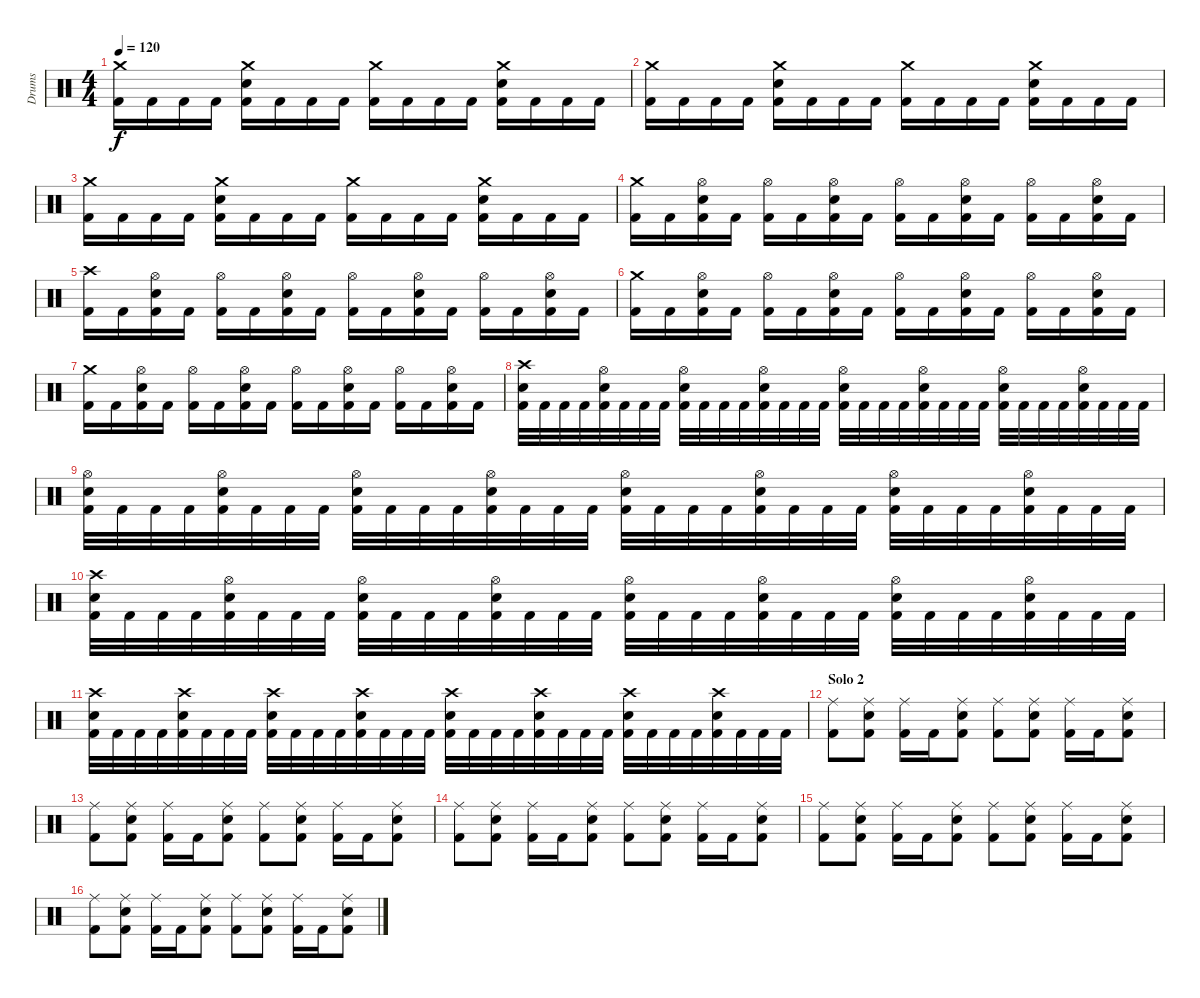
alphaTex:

\track ("Drums" "Drums") {instrument percussion}
\staff {score}
\articulation defaults
\ts (4 4)
\tempo 120
\clef neutral
\ks c
("Crash medium (hit)" "Kick (hit) 2").16{dy f} "Kick (hit) 2".16 "Kick (hit) 2".16 "Kick (hit) 2".16 ("Crash medium (hit)" "Electric Snare (hit)" "Kick (hit) 2").16 "Kick (hit) 2".16 "Kick (hit) 2".16 "Kick (hit) 2".16 ("Crash medium (hit)" "Kick (hit) 2").16 "Kick (hit) 2".16 "Kick (hit) 2".16 "Kick (hit) 2".16 ("Crash medium (hit)" "Electric Snare (hit)" "Kick (hit) 2").16 "Kick (hit) 2".16 "Kick (hit) 2".16 "Kick (hit) 2".16 |
("Crash medium (hit)" "Kick (hit) 2").16 "Kick (hit) 2".16 "Kick (hit) 2".16 "Kick (hit) 2".16 ("Crash medium (hit)" "Electric Snare (hit)" "Kick (hit) 2").16 "Kick (hit) 2".16 "Kick (hit) 2".16 "Kick (hit) 2".16 ("Crash medium (hit)" "Kick (hit) 2").16 "Kick (hit) 2".16 "Kick (hit) 2".16 "Kick (hit) 2".16 ("Crash medium (hit)" "Electric Snare (hit)" "Kick (hit) 2").16 "Kick (hit) 2".16 "Kick (hit) 2".16 "Kick (hit) 2".16 |
("Crash medium (hit)" "Kick (hit) 2").16 "Kick (hit) 2".16 "Kick (hit) 2".16 "Kick (hit) 2".16 ("Crash medium (hit)" "Electric Snare (hit)" "Kick (hit) 2").16 "Kick (hit) 2".16 "Kick (hit) 2".16 "Kick (hit) 2".16 ("Crash medium (hit)" "Kick (hit) 2").16 "Kick (hit) 2".16 "Kick (hit) 2".16 "Kick (hit) 2".16 ("Crash medium (hit)" "Electric Snare (hit)" "Kick (hit) 2").16 "Kick (hit) 2".16 "Kick (hit) 2".16 "Kick (hit) 2".16 |
("Crash medium (hit)" "Kick (hit) 2").16 "Kick (hit) 2".16 ("Hi-Hat (open)" "Electric Snare (hit)" "Kick (hit) 2").16 "Kick (hit) 2".16 ("Hi-Hat (open)" "Kick (hit) 2").16 "Kick (hit) 2".16 ("Hi-Hat (open)" "Electric Snare (hit)" "Kick (hit) 2").16 "Kick (hit) 2".16 ("Hi-Hat (open)" "Kick (hit) 2").16 "Kick (hit) 2".16 ("Hi-Hat (open)" "Electric Snare (hit)" "Kick (hit) 2").16 "Kick (hit) 2".16 ("Hi-Hat (open)" "Kick (hit) 2").16 "Kick (hit) 2".16 ("Hi-Hat (open)" "Electric Snare (hit)" "Kick (hit) 2").16 "Kick (hit) 2".16 |
("Crash high (hit)" "Kick (hit) 2").16 "Kick (hit) 2".16 ("Hi-Hat (open)" "Electric Snare (hit)" "Kick (hit) 2").16 "Kick (hit) 2".16 ("Hi-Hat (open)" "Kick (hit) 2").16 "Kick (hit) 2".16 ("Hi-Hat (open)" "Electric Snare (hit)" "Kick (hit) 2").16 "Kick (hit) 2".16 ("Hi-Hat (open)" "Kick (hit) 2").16 "Kick (hit) 2".16 ("Hi-Hat (open)" "Electric Snare (hit)" "Kick (hit) 2").16 "Kick (hit) 2".16 ("Hi-Hat (open)" "Kick (hit) 2").16 "Kick (hit) 2".16 ("Hi-Hat (open)" "Electric Snare (hit)" "Kick (hit) 2").16 "Kick (hit) 2".16 |
("Crash medium (hit)" "Kick (hit) 2").16 "Kick (hit) 2".16 ("Hi-Hat (open)" "Electric Snare (hit)" "Kick (hit) 2").16 "Kick (hit) 2".16 ("Hi-Hat (open)" "Kick (hit) 2").16 "Kick (hit) 2".16 ("Hi-Hat (open)" "Electric Snare (hit)" "Kick (hit) 2").16 "Kick (hit) 2".16 ("Hi-Hat (open)" "Kick (hit) 2").16 "Kick (hit) 2".16 ("Hi-Hat (open)" "Electric Snare (hit)" "Kick (hit) 2").16 "Kick (hit) 2".16 ("Hi-Hat (open)" "Kick (hit) 2").16 "Kick (hit) 2".16 ("Hi-Hat (open)" "Electric Snare (hit)" "Kick (hit) 2").16 "Kick (hit) 2".16 |
("Crash medium (hit)" "Kick (hit) 2").16 "Kick (hit) 2".16 ("Hi-Hat (open)" "Electric Snare (hit)" "Kick (hit) 2").16 "Kick (hit) 2".16 ("Hi-Hat (open)" "Kick (hit) 2").16 "Kick (hit) 2".16 ("Hi-Hat (open)" "Electric Snare (hit)" "Kick (hit) 2").16 "Kick (hit) 2".16 ("Hi-Hat (open)" "Kick (hit) 2").16 "Kick (hit) 2".16 ("Hi-Hat (open)" "Electric Snare (hit)" "Kick (hit) 2").16 "Kick (hit) 2".16 ("Hi-Hat (open)" "Kick (hit) 2").16 "Kick (hit) 2".16 ("Hi-Hat (open)" "Electric Snare (hit)" "Kick (hit) 2").16 "Kick (hit) 2".16 |
("Crash high (hit)" "Electric Snare (hit)" "Kick (hit) 2").32 "Kick (hit) 2".32 "Kick (hit) 2".32 "Kick (hit) 2".32 ("Hi-Hat (open)" "Electric Snare (hit)" "Kick (hit) 2").32 "Kick (hit) 2".32 "Kick (hit) 2".32 "Kick (hit) 2".32 ("Hi-Hat (open)" "Electric Snare (hit)" "Kick (hit) 2").32 "Kick (hit) 2".32 "Kick (hit) 2".32 "Kick (hit) 2".32 ("Hi-Hat (open)" "Electric Snare (hit)" "Kick (hit) 2").32 "Kick (hit) 2".32 "Kick (hit) 2".32 "Kick (hit) 2".32 ("Hi-Hat (open)" "Electric Snare (hit)" "Kick (hit) 2").32 "Kick (hit) 2".32 "Kick (hit) 2".32 "Kick (hit) 2".32 ("Hi-Hat (open)" "Electric Snare (hit)" "Kick (hit) 2").32 "Kick (hit) 2".32 "Kick (hit) 2".32 "Kick (hit) 2".32 ("Hi-Hat (open)" "Electric Snare (hit)" "Kick (hit) 2").32 "Kick (hit) 2".32 "Kick (hit) 2".32 "Kick (hit) 2".32 ("Hi-Hat (open)" "Electric Snare (hit)" "Kick (hit) 2").32 "Kick (hit) 2".32 "Kick (hit) 2".32 "Kick (hit) 2".32 |
("Hi-Hat (open)" "Electric Snare (hit)" "Kick (hit) 2").32 "Kick (hit) 2".32 "Kick (hit) 2".32 "Kick (hit) 2".32 ("Hi-Hat (open)" "Electric Snare (hit)" "Kick (hit) 2").32 "Kick (hit) 2".32 "Kick (hit) 2".32 "Kick (hit) 2".32 ("Hi-Hat (open)" "Electric Snare (hit)" "Kick (hit) 2").32 "Kick (hit) 2".32 "Kick (hit) 2".32 "Kick (hit) 2".32 ("Hi-Hat (open)" "Electric Snare (hit)" "Kick (hit) 2").32 "Kick (hit) 2".32 "Kick (hit) 2".32 "Kick (hit) 2".32 ("Hi-Hat (open)" "Electric Snare (hit)" "Kick (hit) 2").32 "Kick (hit) 2".32 "Kick (hit) 2".32 "Kick (hit) 2".32 ("Hi-Hat (open)" "Electric Snare (hit)" "Kick (hit) 2").32 "Kick (hit) 2".32 "Kick (hit) 2".32 "Kick (hit) 2".32 ("Hi-Hat (open)" "Electric Snare (hit)" "Kick (hit) 2").32 "Kick (hit) 2".32 "Kick (hit) 2".32 "Kick (hit) 2".32 ("Hi-Hat (open)" "Electric Snare (hit)" "Kick (hit) 2").32 "Kick (hit) 2".32 "Kick (hit) 2".32 "Kick (hit) 2".32 |
("Crash high (hit)" "Electric Snare (hit)" "Kick (hit) 2").32 "Kick (hit) 2".32 "Kick (hit) 2".32 "Kick (hit) 2".32 ("Hi-Hat (open)" "Electric Snare (hit)" "Kick (hit) 2").32 "Kick (hit) 2".32 "Kick (hit) 2".32 "Kick (hit) 2".32 ("Hi-Hat (open)" "Electric Snare (hit)" "Kick (hit) 2").32 "Kick (hit) 2".32 "Kick (hit) 2".32 "Kick (hit) 2".32 ("Hi-Hat (open)" "Electric Snare (hit)" "Kick (hit) 2").32 "Kick (hit) 2".32 "Kick (hit) 2".32 "Kick (hit) 2".32 ("Hi-Hat (open)" "Electric Snare (hit)" "Kick (hit) 2").32 "Kick (hit) 2".32 "Kick (hit) 2".32 "Kick (hit) 2".32 ("Hi-Hat (open)" "Electric Snare (hit)" "Kick (hit) 2").32 "Kick (hit) 2".32 "Kick (hit) 2".32 "Kick (hit) 2".32 ("Hi-Hat (open)" "Electric Snare (hit)" "Kick (hit) 2").32 "Kick (hit) 2".32 "Kick (hit) 2".32 "Kick (hit) 2".32 ("Hi-Hat (open)" "Electric Snare (hit)" "Kick (hit) 2").32 "Kick (hit) 2".32 "Kick (hit) 2".32 "Kick (hit) 2".32 |
("Crash high (hit)" "Electric Snare (hit)" "Kick (hit) 2").32 "Kick (hit) 2".32 "Kick (hit) 2".32 "Kick (hit) 2".32 ("Crash high (hit)" "Electric Snare (hit)" "Kick (hit) 2").32 "Kick (hit) 2".32 "Kick (hit) 2".32 "Kick (hit) 2".32 ("Crash high (hit)" "Electric Snare (hit)" "Kick (hit) 2").32 "Kick (hit) 2".32 "Kick (hit) 2".32 "Kick (hit) 2".32 ("Crash high (hit)" "Electric Snare (hit)" "Kick (hit) 2").32 "Kick (hit) 2".32 "Kick (hit) 2".32 "Kick (hit) 2".32 ("Crash high (hit)" "Electric Snare (hit)" "Kick (hit) 2").32 "Kick (hit) 2".32 "Kick (hit) 2".32 "Kick (hit) 2".32 ("Crash high (hit)" "Electric Snare (hit)" "Kick (hit) 2").32 "Kick (hit) 2".32 "Kick (hit) 2".32 "Kick (hit) 2".32 ("Crash high (hit)" "Electric Snare (hit)" "Kick (hit) 2").32 "Kick (hit) 2".32 "Kick (hit) 2".32 "Kick (hit) 2".32 ("Crash high (hit)" "Electric Snare (hit)" "Kick (hit) 2").32 "Kick (hit) 2".32 "Kick (hit) 2".32 "Kick (hit) 2".32 |
\section ("" "Solo 2")
("Ride (middle)" "Kick (hit) 2").8 ("Ride (middle)" "Electric Snare (hit)" "Kick (hit) 2").8 ("Ride (middle)" "Kick (hit) 2").16 "Kick (hit) 2".16 ("Ride (middle)" "Electric Snare (hit)" "Kick (hit) 2").8 ("Ride (middle)" "Kick (hit) 2").8 ("Ride (middle)" "Electric Snare (hit)" "Kick (hit) 2").8 ("Ride (middle)" "Kick (hit) 2").16 "Kick (hit) 2".16 ("Ride (middle)" "Electric Snare (hit)" "Kick (hit) 2").8 |
("Ride (middle)" "Kick (hit) 2").8 ("Ride (middle)" "Electric Snare (hit)" "Kick (hit) 2").8 ("Ride (middle)" "Kick (hit) 2").16 "Kick (hit) 2".16 ("Ride (middle)" "Electric Snare (hit)" "Kick (hit) 2").8 ("Ride (middle)" "Kick (hit) 2").8 ("Ride (middle)" "Electric Snare (hit)" "Kick (hit) 2").8 ("Ride (middle)" "Kick (hit) 2").16 "Kick (hit) 2".16 ("Ride (middle)" "Electric Snare (hit)" "Kick (hit) 2").8 |
("Ride (middle)" "Kick (hit) 2").8 ("Ride (middle)" "Electric Snare (hit)" "Kick (hit) 2").8 ("Ride (middle)" "Kick (hit) 2").16 "Kick (hit) 2".16 ("Ride (middle)" "Electric Snare (hit)" "Kick (hit) 2").8 ("Ride (middle)" "Kick (hit) 2").8 ("Ride (middle)" "Electric Snare (hit)" "Kick (hit) 2").8 ("Ride (middle)" "Kick (hit) 2").16 "Kick (hit) 2".16 ("Ride (middle)" "Electric Snare (hit)" "Kick (hit) 2").8 |
("Ride (middle)" "Kick (hit) 2").8 ("Ride (middle)" "Electric Snare (hit)" "Kick (hit) 2").8 ("Ride (middle)" "Kick (hit) 2").16 "Kick (hit) 2".16 ("Ride (middle)" "Electric Snare (hit)" "Kick (hit) 2").8 ("Ride (middle)" "Kick (hit) 2").8 ("Ride (middle)" "Electric Snare (hit)" "Kick (hit) 2").8 ("Ride (middle)" "Kick (hit) 2").16 "Kick (hit) 2".16 ("Ride (middle)" "Electric Snare (hit)" "Kick (hit) 2").8 |
("Ride (middle)" "Kick (hit) 2").8 ("Ride (middle)" "Electric Snare (hit)" "Kick (hit) 2").8 ("Ride (middle)" "Kick (hit) 2").16 "Kick (hit) 2".16 ("Ride (middle)" "Electric Snare (hit)" "Kick (hit) 2").8 ("Ride (middle)" "Kick (hit) 2").8 ("Ride (middle)" "Electric Snare (hit)" "Kick (hit) 2").8 ("Ride (middle)" "Kick (hit) 2").16 "Kick (hit) 2".16 ("Ride (middle)" "Electric Snare (hit)" "Kick (hit) 2").8
